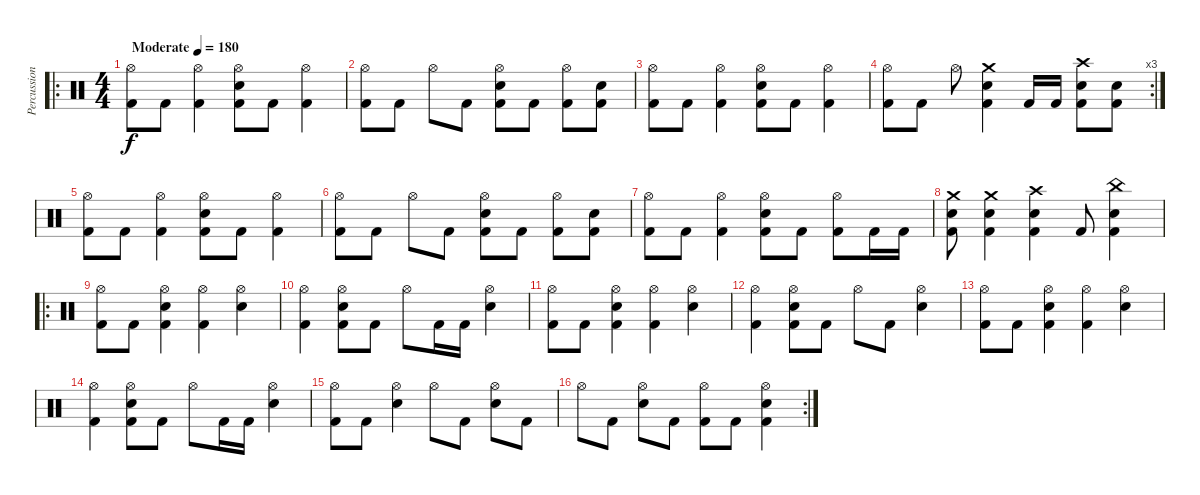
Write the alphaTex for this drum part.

\track ("Percussion" "Percussion") {instrument percussion}
\staff {score}
\articulation defaults
\ro
\ts (4 4)
\tempo (180 "Moderate")
\clef neutral
\ks c
("Hi-Hat (open)" "Kick (hit) 2").8{dy f} "Kick (hit) 2".8 ("Hi-Hat (open)" "Kick (hit) 2").4 ("Hi-Hat (open)" "Electric Snare (hit)" "Kick (hit) 2").8 "Kick (hit) 2".8 ("Hi-Hat (open)" "Kick (hit) 2").4 |
("Hi-Hat (open)" "Kick (hit) 2").8 "Kick (hit) 2".8 "Hi-Hat (open)".8 "Kick (hit) 2".8 ("Hi-Hat (open)" "Electric Snare (hit)" "Kick (hit) 2").8 "Kick (hit) 2".8 ("Hi-Hat (open)" "Kick (hit) 2").8 ("Electric Snare (hit)" "Kick (hit) 2").8 |
("Hi-Hat (open)" "Kick (hit) 2").8 "Kick (hit) 2".8 ("Hi-Hat (open)" "Kick (hit) 2").4 ("Hi-Hat (open)" "Electric Snare (hit)" "Kick (hit) 2").8 "Kick (hit) 2".8 ("Hi-Hat (open)" "Kick (hit) 2").4 |
\rc 3
("Hi-Hat (open)" "Kick (hit) 2").8 "Kick (hit) 2".8 "Hi-Hat (open)".8 ("Crash medium (hit)" "Electric Snare (hit)" "Kick (hit) 2").4 "Kick (hit) 2".16 "Kick (hit) 2".16 ("Crash high (hit)" "Electric Snare (hit)" "Kick (hit) 2").8 ("Electric Snare (hit)" "Kick (hit) 2").8 |
("Hi-Hat (open)" "Kick (hit) 2").8 "Kick (hit) 2".8 ("Hi-Hat (open)" "Kick (hit) 2").4 ("Hi-Hat (open)" "Electric Snare (hit)" "Kick (hit) 2").8 "Kick (hit) 2".8 ("Hi-Hat (open)" "Kick (hit) 2").4 |
("Hi-Hat (open)" "Kick (hit) 2").8 "Kick (hit) 2".8 "Hi-Hat (open)".8 "Kick (hit) 2".8 ("Hi-Hat (open)" "Electric Snare (hit)" "Kick (hit) 2").8 "Kick (hit) 2".8 ("Hi-Hat (open)" "Kick (hit) 2").8 ("Electric Snare (hit)" "Kick (hit) 2").8 |
("Hi-Hat (open)" "Kick (hit) 2").8 "Kick (hit) 2".8 ("Hi-Hat (open)" "Kick (hit) 2").4 ("Hi-Hat (open)" "Electric Snare (hit)" "Kick (hit) 2").8 "Kick (hit) 2".8 ("Hi-Hat (open)" "Kick (hit) 2").8 "Kick (hit) 2".16 "Kick (hit) 2".16 |
("Crash medium (hit)" "Electric Snare (hit)" "Kick (hit) 2").8 ("Crash medium (hit)" "Electric Snare (hit)" "Kick (hit) 2").4 ("Crash high (hit)" "Electric Snare (hit)" "Kick (hit) 2").4 "Kick (hit) 2".8 ("China (hit)" "Electric Snare (hit)" "Kick (hit) 2").4 |
\ro
("Hi-Hat (open)" "Kick (hit) 2").8 "Kick (hit) 2".8 ("Hi-Hat (open)" "Electric Snare (hit)" "Kick (hit) 2").4 ("Hi-Hat (open)" "Kick (hit) 2").4 ("Hi-Hat (open)" "Electric Snare (hit)").4 |
("Hi-Hat (open)" "Kick (hit) 2").4 ("Hi-Hat (open)" "Electric Snare (hit)" "Kick (hit) 2").8 "Kick (hit) 2".8 "Hi-Hat (open)".8 "Kick (hit) 2".16 "Kick (hit) 2".16 ("Hi-Hat (open)" "Electric Snare (hit)").4 |
("Hi-Hat (open)" "Kick (hit) 2").8 "Kick (hit) 2".8 ("Hi-Hat (open)" "Electric Snare (hit)" "Kick (hit) 2").4 ("Hi-Hat (open)" "Kick (hit) 2").4 ("Hi-Hat (open)" "Electric Snare (hit)").4 |
("Hi-Hat (open)" "Kick (hit) 2").4 ("Hi-Hat (open)" "Electric Snare (hit)" "Kick (hit) 2").8 "Kick (hit) 2".8 "Hi-Hat (open)".8 "Kick (hit) 2".8 ("Hi-Hat (open)" "Electric Snare (hit)").4 |
("Hi-Hat (open)" "Kick (hit) 2").8 "Kick (hit) 2".8 ("Hi-Hat (open)" "Electric Snare (hit)" "Kick (hit) 2").4 ("Hi-Hat (open)" "Kick (hit) 2").4 ("Hi-Hat (open)" "Electric Snare (hit)").4 |
("Hi-Hat (open)" "Kick (hit) 2").4 ("Hi-Hat (open)" "Electric Snare (hit)" "Kick (hit) 2").8 "Kick (hit) 2".8 "Hi-Hat (open)".8 "Kick (hit) 2".16 "Kick (hit) 2".16 ("Hi-Hat (open)" "Electric Snare (hit)").4 |
("Hi-Hat (open)" "Kick (hit) 2").8 "Kick (hit) 2".8 ("Hi-Hat (open)" "Electric Snare (hit)").4 "Hi-Hat (open)".8 "Kick (hit) 2".8 ("Hi-Hat (open)" "Electric Snare (hit)").8 "Kick (hit) 2".8 |
\rc 2 "Hi-Hat (open)".8 "Kick (hit) 2".8
("Hi-Hat (open)" "Electric Snare (hit)").8 "Kick (hit) 2".8 ("Hi-Hat (open)" "Kick (hit) 2").8 "Kick (hit) 2".8 ("Hi-Hat (open)" "Electric Snare (hit)" "Kick (hit) 2").4
